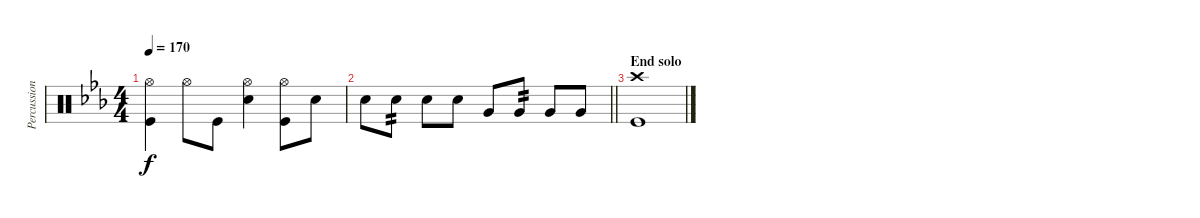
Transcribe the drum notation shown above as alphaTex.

\track ("Percussion" "Percussion") {instrument percussion}
\staff {score}
\articulation defaults
\ts (4 4)
\tempo 170
\clef neutral
\ks eb
("Kick (hit)" "Hi-Hat (open)").4{dy f} "Hi-Hat (open)".8 "Kick (hit)".8 ("Snare (hit) 2" "Hi-Hat (open)").4 ("Kick (hit)" "Hi-Hat (open)").8 "Snare (hit) 2".8 |
\barLineRight lightlight "Snare (hit) 2".8 "Snare (hit) 2".8{tp 2} "Snare (hit) 2".8 "Snare (hit) 2".8 "Very Low Tom (hit)".8 "Very Low Tom (hit)".8{tp 2} "Very Low Tom (hit)".8 "Very Low Tom (hit)".8
|
\section ("" "End solo")
("Kick (hit)" "Crash high (hit)").1
